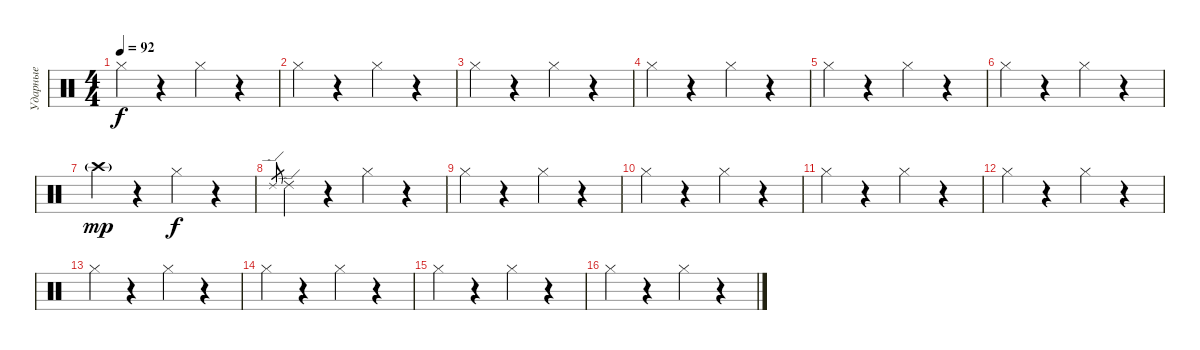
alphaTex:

\track ("Ударные" "Ударные") {instrument percussion}
\staff {score}
\articulation defaults
\ts (4 4)
\tempo 92
\clef neutral
\ks c "Hi-Hat (closed)".4{dy f}
r.4 "Hi-Hat (closed)".4 r.4 |
"Hi-Hat (closed)".4 r.4 "Hi-Hat (closed)".4 r.4 |
"Hi-Hat (closed)".4 r.4 "Hi-Hat (closed)".4 r.4 |
"Hi-Hat (closed)".4 r.4 "Hi-Hat (closed)".4 r.4 |
"Hi-Hat (closed)".4 r.4 "Hi-Hat (closed)".4 r.4 |
"Hi-Hat (closed)".4 r.4 "Hi-Hat (closed)".4 r.4 |
"Crash high (hit)"{g}.4{dy mp} r.4 "Hi-Hat (closed)".4{dy f} r.4 |
"Ride (edge) 2"{sl}.8{gr} "Ride (edge) 2".4 r.4 "Hi-Hat (closed)".4 r.4 |
"Hi-Hat (closed)".4 r.4 "Hi-Hat (closed)".4 r.4 |
"Hi-Hat (closed)".4 r.4 "Hi-Hat (closed)".4 r.4 |
"Hi-Hat (closed)".4 r.4 "Hi-Hat (closed)".4 r.4 |
"Hi-Hat (closed)".4 r.4 "Hi-Hat (closed)".4 r.4 |
"Hi-Hat (closed)".4 r.4 "Hi-Hat (closed)".4 r.4 |
"Hi-Hat (closed)".4 r.4 "Hi-Hat (closed)".4 r.4 |
"Hi-Hat (closed)".4 r.4 "Hi-Hat (closed)".4 r.4 |
"Hi-Hat (closed)".4 r.4 "Hi-Hat (closed)".4 r.4
